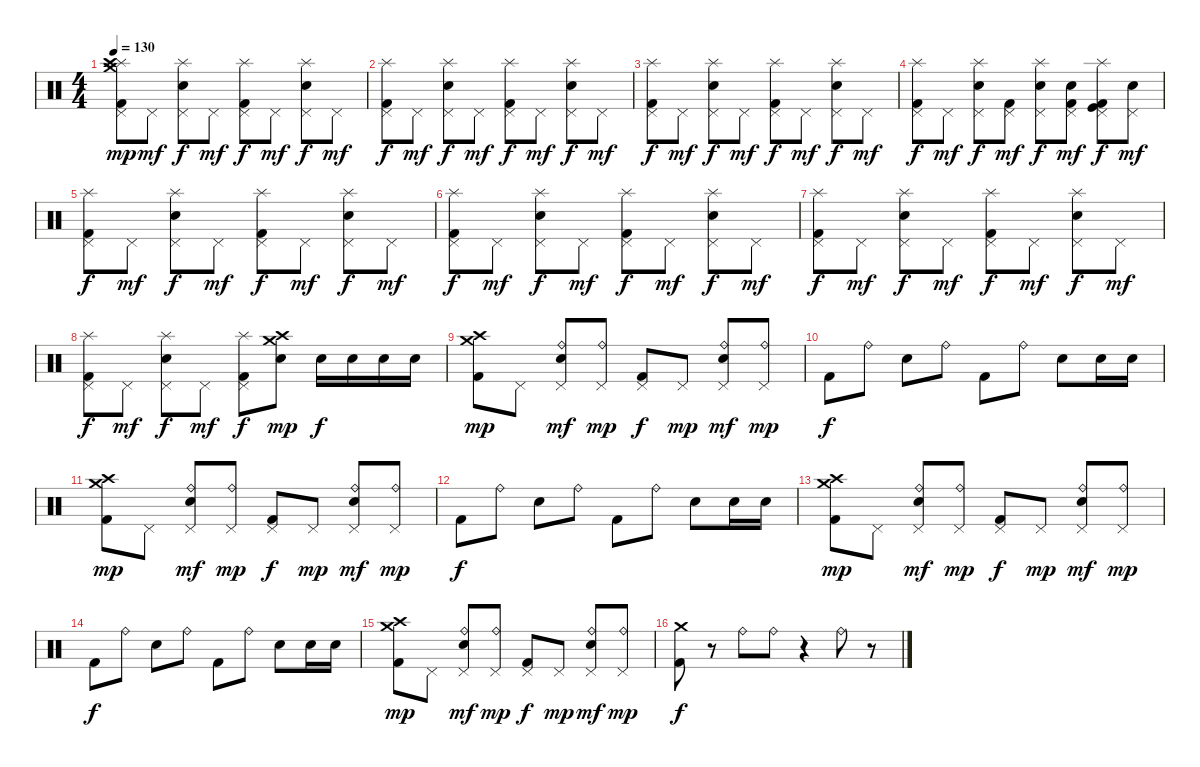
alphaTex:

\track "" {instrument percussion}
\staff {score}
\articulation defaults
\ts (4 4)
\tempo 130
\clef neutral
\ks c
("Splash (hit)" "Crash medium (hit)" "Crash high (hit)" "Pedal Hi-Hat (hit)" "Kick (hit) 2").8{dy mp} "Pedal Hi-Hat (hit)".8{dy mf} ("Splash (hit)" "Pedal Hi-Hat (hit)" "Snare (hit) 2").8{dy f} "Pedal Hi-Hat (hit)".8{dy mf} ("Splash (hit)" "Pedal Hi-Hat (hit)" "Kick (hit) 2").8{dy f} "Pedal Hi-Hat (hit)".8{dy mf} ("Splash (hit)" "Pedal Hi-Hat (hit)" "Snare (hit) 2").8{dy f} "Pedal Hi-Hat (hit)".8{dy mf} |
("Splash (hit)" "Pedal Hi-Hat (hit)" "Kick (hit) 2").8{dy f} "Pedal Hi-Hat (hit)".8{dy mf} ("Splash (hit)" "Pedal Hi-Hat (hit)" "Snare (hit) 2").8{dy f} "Pedal Hi-Hat (hit)".8{dy mf} ("Splash (hit)" "Pedal Hi-Hat (hit)" "Kick (hit) 2").8{dy f} "Pedal Hi-Hat (hit)".8{dy mf} ("Splash (hit)" "Pedal Hi-Hat (hit)" "Snare (hit) 2").8{dy f} "Pedal Hi-Hat (hit)".8{dy mf} |
("Splash (hit)" "Pedal Hi-Hat (hit)" "Kick (hit) 2").8{dy f} "Pedal Hi-Hat (hit)".8{dy mf} ("Splash (hit)" "Pedal Hi-Hat (hit)" "Snare (hit) 2").8{dy f} "Pedal Hi-Hat (hit)".8{dy mf} ("Splash (hit)" "Pedal Hi-Hat (hit)" "Kick (hit) 2").8{dy f} "Pedal Hi-Hat (hit)".8{dy mf} ("Splash (hit)" "Pedal Hi-Hat (hit)" "Snare (hit) 2").8{dy f} "Pedal Hi-Hat (hit)".8{dy mf} |
("Splash (hit)" "Pedal Hi-Hat (hit)" "Kick (hit) 2").8{dy f} "Pedal Hi-Hat (hit)".8{dy mf} ("Splash (hit)" "Pedal Hi-Hat (hit)" "Snare (hit) 2").8{dy f} ("Kick (hit) 2" "Pedal Hi-Hat (hit)").8{dy mf} ("Snare (hit) 2" "Splash (hit)" "Pedal Hi-Hat (hit)").8{dy f} ("Snare (hit) 2" "Kick (hit) 2" "Pedal Hi-Hat (hit)").8{dy mf} ("Kick (hit)" "Kick (hit) 2" "Splash (hit)" "Pedal Hi-Hat (hit)").8{dy f} ("Snare (hit) 2" "Pedal Hi-Hat (hit)").8{dy mf} |
("Splash (hit)" "Pedal Hi-Hat (hit)" "Kick (hit) 2").8{dy f} "Pedal Hi-Hat (hit)".8{dy mf} ("Splash (hit)" "Pedal Hi-Hat (hit)" "Snare (hit) 2").8{dy f} "Pedal Hi-Hat (hit)".8{dy mf} ("Splash (hit)" "Pedal Hi-Hat (hit)" "Kick (hit) 2").8{dy f} "Pedal Hi-Hat (hit)".8{dy mf} ("Splash (hit)" "Pedal Hi-Hat (hit)" "Snare (hit) 2").8{dy f} "Pedal Hi-Hat (hit)".8{dy mf} |
("Splash (hit)" "Pedal Hi-Hat (hit)" "Kick (hit) 2").8{dy f} "Pedal Hi-Hat (hit)".8{dy mf} ("Splash (hit)" "Pedal Hi-Hat (hit)" "Snare (hit) 2").8{dy f} "Pedal Hi-Hat (hit)".8{dy mf} ("Splash (hit)" "Pedal Hi-Hat (hit)" "Kick (hit) 2").8{dy f} "Pedal Hi-Hat (hit)".8{dy mf} ("Splash (hit)" "Pedal Hi-Hat (hit)" "Snare (hit) 2").8{dy f} "Pedal Hi-Hat (hit)".8{dy mf} |
("Splash (hit)" "Pedal Hi-Hat (hit)" "Kick (hit) 2").8{dy f} "Pedal Hi-Hat (hit)".8{dy mf} ("Splash (hit)" "Pedal Hi-Hat (hit)" "Snare (hit) 2").8{dy f} "Pedal Hi-Hat (hit)".8{dy mf} ("Splash (hit)" "Pedal Hi-Hat (hit)" "Kick (hit) 2").8{dy f} "Pedal Hi-Hat (hit)".8{dy mf} ("Splash (hit)" "Pedal Hi-Hat (hit)" "Snare (hit) 2").8{dy f} "Pedal Hi-Hat (hit)".8{dy mf} |
("Splash (hit)" "Pedal Hi-Hat (hit)" "Kick (hit) 2").8{dy f} "Pedal Hi-Hat (hit)".8{dy mf} ("Splash (hit)" "Pedal Hi-Hat (hit)" "Snare (hit) 2").8{dy f} "Pedal Hi-Hat (hit)".8{dy mf} ("Splash (hit)" "Pedal Hi-Hat (hit)" "Kick (hit) 2").8{dy f} ("Crash medium (hit)" "Crash high (hit)" "Snare (hit) 2").8{dy mp} "Snare (hit) 2".16{dy f} "Snare (hit) 2".16 "Snare (hit) 2".16 "Snare (hit) 2".16 |
("Crash medium (hit)" "Crash high (hit)" "Kick (hit) 2").8{dy mp} "Pedal Hi-Hat (hit)".8 ("Ride (bell)" "Pedal Hi-Hat (hit)" "Snare (hit) 2").8{dy mf} ("Ride (bell)" "Pedal Hi-Hat (hit)").8{dy mp} ("Pedal Hi-Hat (hit)" "Kick (hit) 2").8{dy f} "Pedal Hi-Hat (hit)".8{dy mp} ("Ride (bell)" "Pedal Hi-Hat (hit)" "Snare (hit) 2").8{dy mf} ("Ride (bell)" "Pedal Hi-Hat (hit)").8{dy mp} |
"Kick (hit) 2".8{dy f} "Ride (bell)".8 "Snare (hit) 2".8 "Ride (bell)".8 "Kick (hit) 2".8 "Ride (bell)".8 "Snare (hit) 2".8 "Snare (hit) 2".16 "Snare (hit) 2".16 |
("Crash medium (hit)" "Crash high (hit)" "Kick (hit) 2").8{dy mp} "Pedal Hi-Hat (hit)".8 ("Ride (bell)" "Pedal Hi-Hat (hit)" "Snare (hit) 2").8{dy mf} ("Ride (bell)" "Pedal Hi-Hat (hit)").8{dy mp} ("Pedal Hi-Hat (hit)" "Kick (hit) 2").8{dy f} "Pedal Hi-Hat (hit)".8{dy mp} ("Ride (bell)" "Pedal Hi-Hat (hit)" "Snare (hit) 2").8{dy mf} ("Ride (bell)" "Pedal Hi-Hat (hit)").8{dy mp} |
"Kick (hit) 2".8{dy f} "Ride (bell)".8 "Snare (hit) 2".8 "Ride (bell)".8 "Kick (hit) 2".8 "Ride (bell)".8 "Snare (hit) 2".8 "Snare (hit) 2".16 "Snare (hit) 2".16 |
("Crash medium (hit)" "Crash high (hit)" "Kick (hit) 2").8{dy mp} "Pedal Hi-Hat (hit)".8 ("Ride (bell)" "Pedal Hi-Hat (hit)" "Snare (hit) 2").8{dy mf} ("Ride (bell)" "Pedal Hi-Hat (hit)").8{dy mp} ("Pedal Hi-Hat (hit)" "Kick (hit) 2").8{dy f} "Pedal Hi-Hat (hit)".8{dy mp} ("Ride (bell)" "Pedal Hi-Hat (hit)" "Snare (hit) 2").8{dy mf} ("Ride (bell)" "Pedal Hi-Hat (hit)").8{dy mp} |
"Kick (hit) 2".8{dy f} "Ride (bell)".8 "Snare (hit) 2".8 "Ride (bell)".8 "Kick (hit) 2".8 "Ride (bell)".8 "Snare (hit) 2".8 "Snare (hit) 2".16 "Snare (hit) 2".16 |
("Crash medium (hit)" "Crash high (hit)" "Kick (hit) 2").8{dy mp} "Pedal Hi-Hat (hit)".8 ("Ride (bell)" "Pedal Hi-Hat (hit)" "Snare (hit) 2").8{dy mf} ("Ride (bell)" "Pedal Hi-Hat (hit)").8{dy mp} ("Pedal Hi-Hat (hit)" "Kick (hit) 2").8{dy f} "Pedal Hi-Hat (hit)".8{dy mp} ("Ride (bell)" "Pedal Hi-Hat (hit)" "Snare (hit) 2").8{dy mf} ("Ride (bell)" "Pedal Hi-Hat (hit)").8{dy mp} |
("Crash medium (hit)" "Kick (hit) 2").8{dy f} r.8 "Ride (bell)".8 "Ride (bell)".8 r.4 "Ride (bell)".8 r.8
